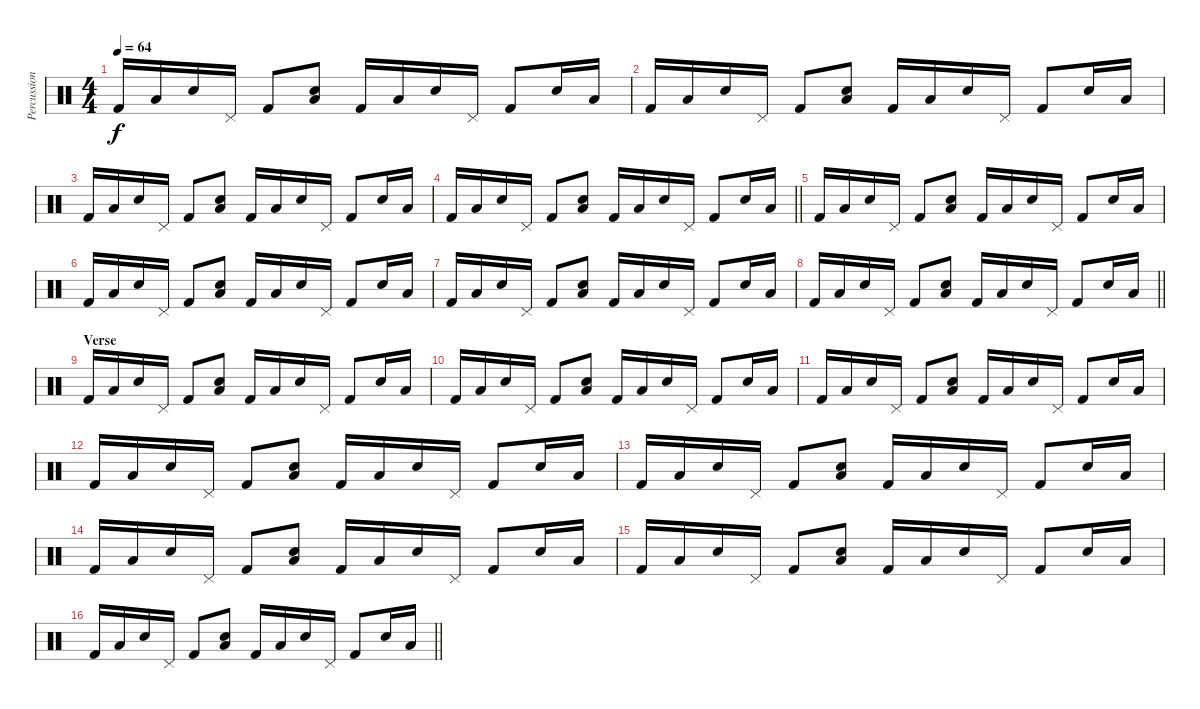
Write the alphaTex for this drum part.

\track ("Percussion" "Percussion") {instrument percussion}
\staff {score}
\articulation defaults
\ts (4 4)
\tempo 64
\clef neutral
\ks c "Kick (hit) 2".16{dy f} "Low Floor Tom (hit)".16 "Snare (hit) 2".16 "Pedal Hi-Hat (hit)".16 "Kick (hit) 2".8
("Snare (hit) 2" "Low Floor Tom (hit)").8 "Kick (hit) 2".16 "Low Floor Tom (hit)".16 "Snare (hit) 2".16 "Pedal Hi-Hat (hit)".16 "Kick (hit) 2".8 "Snare (hit) 2".16 "Low Floor Tom (hit)".16 |
"Kick (hit) 2".16 "Low Floor Tom (hit)".16 "Snare (hit) 2".16 "Pedal Hi-Hat (hit)".16 "Kick (hit) 2".8 ("Snare (hit) 2" "Low Floor Tom (hit)").8 "Kick (hit) 2".16 "Low Floor Tom (hit)".16 "Snare (hit) 2".16 "Pedal Hi-Hat (hit)".16 "Kick (hit) 2".8 "Snare (hit) 2".16 "Low Floor Tom (hit)".16 |
"Kick (hit) 2".16 "Low Floor Tom (hit)".16 "Snare (hit) 2".16 "Pedal Hi-Hat (hit)".16 "Kick (hit) 2".8 ("Snare (hit) 2" "Low Floor Tom (hit)").8 "Kick (hit) 2".16 "Low Floor Tom (hit)".16 "Snare (hit) 2".16 "Pedal Hi-Hat (hit)".16 "Kick (hit) 2".8 "Snare (hit) 2".16 "Low Floor Tom (hit)".16 |
\barLineRight lightlight "Kick (hit) 2".16 "Low Floor Tom (hit)".16 "Snare (hit) 2".16 "Pedal Hi-Hat (hit)".16 "Kick (hit) 2".8
("Snare (hit) 2" "Low Floor Tom (hit)").8 "Kick (hit) 2".16 "Low Floor Tom (hit)".16 "Snare (hit) 2".16 "Pedal Hi-Hat (hit)".16 "Kick (hit) 2".8 "Snare (hit) 2".16 "Low Floor Tom (hit)".16 |
"Kick (hit) 2".16 "Low Floor Tom (hit)".16 "Snare (hit) 2".16 "Pedal Hi-Hat (hit)".16 "Kick (hit) 2".8 ("Snare (hit) 2" "Low Floor Tom (hit)").8 "Kick (hit) 2".16 "Low Floor Tom (hit)".16 "Snare (hit) 2".16 "Pedal Hi-Hat (hit)".16 "Kick (hit) 2".8 "Snare (hit) 2".16 "Low Floor Tom (hit)".16 |
"Kick (hit) 2".16 "Low Floor Tom (hit)".16 "Snare (hit) 2".16 "Pedal Hi-Hat (hit)".16 "Kick (hit) 2".8 ("Snare (hit) 2" "Low Floor Tom (hit)").8 "Kick (hit) 2".16 "Low Floor Tom (hit)".16 "Snare (hit) 2".16 "Pedal Hi-Hat (hit)".16 "Kick (hit) 2".8 "Snare (hit) 2".16 "Low Floor Tom (hit)".16 |
"Kick (hit) 2".16 "Low Floor Tom (hit)".16 "Snare (hit) 2".16 "Pedal Hi-Hat (hit)".16 "Kick (hit) 2".8 ("Snare (hit) 2" "Low Floor Tom (hit)").8 "Kick (hit) 2".16 "Low Floor Tom (hit)".16 "Snare (hit) 2".16 "Pedal Hi-Hat (hit)".16 "Kick (hit) 2".8 "Snare (hit) 2".16 "Low Floor Tom (hit)".16 |
\barLineRight lightlight "Kick (hit) 2".16 "Low Floor Tom (hit)".16 "Snare (hit) 2".16 "Pedal Hi-Hat (hit)".16 "Kick (hit) 2".8
("Snare (hit) 2" "Low Floor Tom (hit)").8 "Kick (hit) 2".16 "Low Floor Tom (hit)".16 "Snare (hit) 2".16 "Pedal Hi-Hat (hit)".16 "Kick (hit) 2".8 "Snare (hit) 2".16 "Low Floor Tom (hit)".16 |
\section ("" "Verse")
"Kick (hit) 2".16 "Low Floor Tom (hit)".16 "Snare (hit) 2".16 "Pedal Hi-Hat (hit)".16 "Kick (hit) 2".8 ("Snare (hit) 2" "Low Floor Tom (hit)").8 "Kick (hit) 2".16 "Low Floor Tom (hit)".16 "Snare (hit) 2".16 "Pedal Hi-Hat (hit)".16 "Kick (hit) 2".8 "Snare (hit) 2".16 "Low Floor Tom (hit)".16 |
"Kick (hit) 2".16 "Low Floor Tom (hit)".16 "Snare (hit) 2".16 "Pedal Hi-Hat (hit)".16 "Kick (hit) 2".8 ("Snare (hit) 2" "Low Floor Tom (hit)").8 "Kick (hit) 2".16 "Low Floor Tom (hit)".16 "Snare (hit) 2".16 "Pedal Hi-Hat (hit)".16 "Kick (hit) 2".8 "Snare (hit) 2".16 "Low Floor Tom (hit)".16 |
"Kick (hit) 2".16 "Low Floor Tom (hit)".16 "Snare (hit) 2".16 "Pedal Hi-Hat (hit)".16 "Kick (hit) 2".8 ("Snare (hit) 2" "Low Floor Tom (hit)").8 "Kick (hit) 2".16 "Low Floor Tom (hit)".16 "Snare (hit) 2".16 "Pedal Hi-Hat (hit)".16 "Kick (hit) 2".8 "Snare (hit) 2".16 "Low Floor Tom (hit)".16 |
"Kick (hit) 2".16 "Low Floor Tom (hit)".16 "Snare (hit) 2".16 "Pedal Hi-Hat (hit)".16 "Kick (hit) 2".8 ("Snare (hit) 2" "Low Floor Tom (hit)").8 "Kick (hit) 2".16 "Low Floor Tom (hit)".16 "Snare (hit) 2".16 "Pedal Hi-Hat (hit)".16 "Kick (hit) 2".8 "Snare (hit) 2".16 "Low Floor Tom (hit)".16 |
"Kick (hit) 2".16 "Low Floor Tom (hit)".16 "Snare (hit) 2".16 "Pedal Hi-Hat (hit)".16 "Kick (hit) 2".8 ("Snare (hit) 2" "Low Floor Tom (hit)").8 "Kick (hit) 2".16 "Low Floor Tom (hit)".16 "Snare (hit) 2".16 "Pedal Hi-Hat (hit)".16 "Kick (hit) 2".8 "Snare (hit) 2".16 "Low Floor Tom (hit)".16 |
"Kick (hit) 2".16 "Low Floor Tom (hit)".16 "Snare (hit) 2".16 "Pedal Hi-Hat (hit)".16 "Kick (hit) 2".8 ("Snare (hit) 2" "Low Floor Tom (hit)").8 "Kick (hit) 2".16 "Low Floor Tom (hit)".16 "Snare (hit) 2".16 "Pedal Hi-Hat (hit)".16 "Kick (hit) 2".8 "Snare (hit) 2".16 "Low Floor Tom (hit)".16 |
"Kick (hit) 2".16 "Low Floor Tom (hit)".16 "Snare (hit) 2".16 "Pedal Hi-Hat (hit)".16 "Kick (hit) 2".8 ("Snare (hit) 2" "Low Floor Tom (hit)").8 "Kick (hit) 2".16 "Low Floor Tom (hit)".16 "Snare (hit) 2".16 "Pedal Hi-Hat (hit)".16 "Kick (hit) 2".8 "Snare (hit) 2".16 "Low Floor Tom (hit)".16 |
\barLineRight lightlight "Kick (hit) 2".16 "Low Floor Tom (hit)".16 "Snare (hit) 2".16 "Pedal Hi-Hat (hit)".16 "Kick (hit) 2".8
("Snare (hit) 2" "Low Floor Tom (hit)").8 "Kick (hit) 2".16 "Low Floor Tom (hit)".16 "Snare (hit) 2".16 "Pedal Hi-Hat (hit)".16 "Kick (hit) 2".8 "Snare (hit) 2".16 "Low Floor Tom (hit)".16
